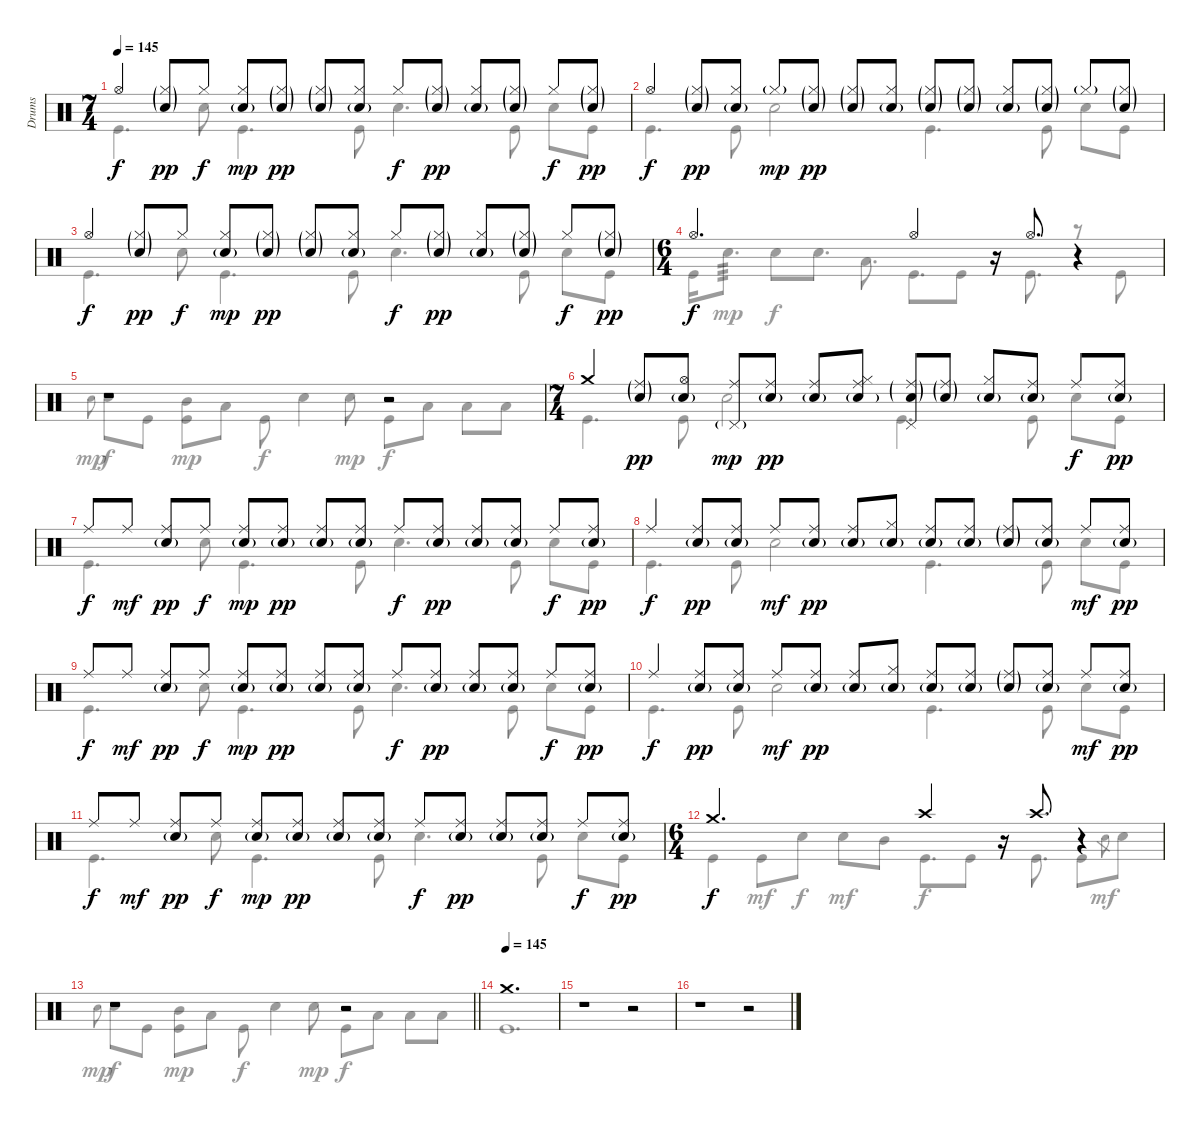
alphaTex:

\track ("Drums" "Drums") {instrument percussion}
\staff {score}
\articulation defaults
\voice
\ts (7 4)
\tempo 145
\clef neutral
\ks c "Hi-Hat (open)".4{dy f}
("Hi-Hat (closed)"{g} "Snare (hit) 2"{g}).8{dy pp} "Hi-Hat (closed)".8{dy f} ("Hi-Hat (closed)" "Snare (hit) 2"{g}).8{dy mp} ("Hi-Hat (closed)"{g} "Snare (hit) 2"{g}).8{dy pp} ("Hi-Hat (closed)"{g} "Snare (hit) 2"{g}).8 ("Hi-Hat (closed)" "Snare (hit) 2"{g}).8 "Hi-Hat (closed)".8{dy f} ("Hi-Hat (closed)"{g} "Snare (hit) 2"{g}).8{dy pp} ("Hi-Hat (closed)" "Snare (hit) 2"{g}).8 ("Hi-Hat (closed)"{g} "Snare (hit) 2"{g}).8 "Hi-Hat (closed)".8{dy f} ("Hi-Hat (closed)"{g} "Snare (hit) 2"{g}).8{dy pp} |
"Hi-Hat (open)".4{dy f} ("Hi-Hat (closed)"{g} "Snare (hit) 2"{g}).8{dy pp} ("Hi-Hat (closed)" "Snare (hit) 2"{g}).8 "Hi-Hat (closed)"{g}.8{dy mp} ("Hi-Hat (closed)"{g} "Snare (hit) 2"{g}).8{dy pp} ("Hi-Hat (closed)"{g} "Snare (hit) 2"{g}).8 ("Hi-Hat (closed)" "Snare (hit) 2"{g}).8 ("Hi-Hat (closed)"{g} "Snare (hit) 2"{g}).8 ("Hi-Hat (closed)"{g} "Snare (hit) 2"{g}).8 ("Hi-Hat (closed)" "Snare (hit) 2"{g}).8 ("Hi-Hat (closed)"{g} "Snare (hit) 2"{g}).8 "Hi-Hat (closed)"{g}.8 ("Hi-Hat (closed)"{g} "Snare (hit) 2"{g}).8 |
"Hi-Hat (open)".4{dy f} ("Hi-Hat (closed)"{g} "Snare (hit) 2"{g}).8{dy pp} "Hi-Hat (closed)".8{dy f} ("Hi-Hat (closed)" "Snare (hit) 2"{g}).8{dy mp} ("Hi-Hat (closed)"{g} "Snare (hit) 2"{g}).8{dy pp} ("Hi-Hat (closed)"{g} "Snare (hit) 2"{g}).8 ("Hi-Hat (closed)" "Snare (hit) 2"{g}).8 "Hi-Hat (closed)".8{dy f} ("Hi-Hat (closed)"{g} "Snare (hit) 2"{g}).8{dy pp} ("Hi-Hat (closed)" "Snare (hit) 2"{g}).8 ("Hi-Hat (closed)"{g} "Snare (hit) 2"{g}).8 "Hi-Hat (closed)".8{dy f} ("Hi-Hat (closed)"{g} "Snare (hit) 2"{g}).8{dy pp} |
\ts (6 4)
"Hi-Hat (open)".2{d dy f} "Hi-Hat (open)".4 r.16 "Hi-Hat (open)".8{d} r.4 |
r.1 r.2 |
\ts (7 4)
"Crash medium (hit)".4 ("Ride (middle)"{g} "Snare (hit) 2"{g}).8{dy pp} ("Hi-Hat (open)" "Snare (hit) 2"{g}).8 ("Ride (middle)" "Pedal Hi-Hat (hit)"{g}).8{dy mp} ("Ride (middle)" "Snare (hit) 2"{g}).8{dy pp} ("Ride (middle)" "Snare (hit) 2"{g}).8 ("Ride (middle)" "Snare (hit) 2"{g} "Hi-Hat (closed)").8 ("Ride (middle)"{g} "Snare (hit) 2"{g} "Pedal Hi-Hat (hit)").8 ("Ride (middle)"{g} "Snare (hit) 2"{g}).8 ("Hi-Hat (closed)" "Snare (hit) 2"{g}).8 ("Ride (middle)" "Snare (hit) 2"{g}).8 "Ride (middle)".8{dy f} ("Ride (middle)" "Snare (hit) 2"{g}).8{dy pp} |
"Ride (middle)".8{dy f} "Ride (middle)".8{dy mf} ("Ride (middle)" "Snare (hit) 2"{g}).8{dy pp} "Ride (middle)".8{dy f} ("Ride (middle)" "Snare (hit) 2"{g}).8{dy mp} ("Ride (middle)" "Snare (hit) 2"{g}).8{dy pp} ("Ride (middle)" "Snare (hit) 2"{g}).8 ("Ride (middle)" "Snare (hit) 2"{g}).8 "Ride (middle)".8{dy f} ("Ride (middle)" "Snare (hit) 2"{g}).8{dy pp} ("Ride (middle)" "Snare (hit) 2"{g}).8 ("Ride (middle)" "Snare (hit) 2"{g}).8 "Ride (middle)".8{dy f} ("Ride (middle)" "Snare (hit) 2"{g}).8{dy pp} |
"Ride (middle)".4{dy f} ("Ride (middle)" "Snare (hit) 2"{g}).8{dy pp} ("Ride (middle)" "Snare (hit) 2"{g}).8 "Ride (middle)".8{dy mf} ("Ride (middle)" "Snare (hit) 2"{g}).8{dy pp} ("Ride (middle)" "Snare (hit) 2"{g}).8 ("Hi-Hat (closed)" "Snare (hit) 2"{g}).8 ("Ride (middle)" "Snare (hit) 2"{g}).8 ("Ride (middle)" "Snare (hit) 2"{g}).8 ("Ride (middle)"{g} "Snare (hit) 2"{g}).8 ("Ride (middle)" "Snare (hit) 2"{g}).8 "Ride (middle)".8{dy mf} ("Ride (middle)" "Snare (hit) 2"{g}).8{dy pp} |
"Ride (middle)".8{dy f} "Ride (middle)".8{dy mf} ("Ride (middle)" "Snare (hit) 2"{g}).8{dy pp} "Ride (middle)".8{dy f} ("Ride (middle)" "Snare (hit) 2"{g}).8{dy mp} ("Ride (middle)" "Snare (hit) 2"{g}).8{dy pp} ("Ride (middle)" "Snare (hit) 2"{g}).8 ("Ride (middle)" "Snare (hit) 2"{g}).8 "Ride (middle)".8{dy f} ("Ride (middle)" "Snare (hit) 2"{g}).8{dy pp} ("Ride (middle)" "Snare (hit) 2"{g}).8 ("Ride (middle)" "Snare (hit) 2"{g}).8 "Ride (middle)".8{dy f} ("Ride (middle)" "Snare (hit) 2"{g}).8{dy pp} |
"Ride (middle)".4{dy f} ("Ride (middle)" "Snare (hit) 2"{g}).8{dy pp} ("Ride (middle)" "Snare (hit) 2"{g}).8 "Ride (middle)".8{dy mf} ("Ride (middle)" "Snare (hit) 2"{g}).8{dy pp} ("Ride (middle)" "Snare (hit) 2"{g}).8 ("Hi-Hat (closed)" "Snare (hit) 2"{g}).8 ("Ride (middle)" "Snare (hit) 2"{g}).8 ("Ride (middle)" "Snare (hit) 2"{g}).8 ("Ride (middle)"{g} "Snare (hit) 2"{g}).8 ("Ride (middle)" "Snare (hit) 2"{g}).8 "Ride (middle)".8{dy mf} ("Ride (middle)" "Snare (hit) 2"{g}).8{dy pp} |
"Ride (middle)".8{dy f} "Ride (middle)".8{dy mf} ("Ride (middle)" "Snare (hit) 2"{g}).8{dy pp} "Ride (middle)".8{dy f} ("Ride (middle)" "Snare (hit) 2"{g}).8{dy mp} ("Ride (middle)" "Snare (hit) 2"{g}).8{dy pp} ("Ride (middle)" "Snare (hit) 2"{g}).8 ("Ride (middle)" "Snare (hit) 2"{g}).8 "Ride (middle)".8{dy f} ("Ride (middle)" "Snare (hit) 2"{g}).8{dy pp} ("Ride (middle)" "Snare (hit) 2"{g}).8 ("Ride (middle)" "Snare (hit) 2"{g}).8 "Ride (middle)".8{dy f} ("Ride (middle)" "Snare (hit) 2"{g}).8{dy pp} |
\ts (6 4)
"Crash medium (hit)".2{d dy f} "Crash high (hit)".4 r.16 "Crash high (hit)".8{d} r.4 |
\barLineRight lightlight
r.1 r.2 |
\section ("" "")
\tempo (145)
"Crash medium (hit)".1{d} |
r.1 r.2 |
r.1 r.2
\voice
\clef neutral
\ottava regular
\simile none
\ks c "Kick (hit)".4{d dy f} "Snare (hit) 2".8 "Kick (hit)".4{d} "Kick (hit)".8 "Snare (hit) 2".4{d} "Kick (hit)".8 "Snare (hit) 2".8 "Kick (hit)".8
|
"Kick (hit)".4{d} "Kick (hit)".8 "Snare (hit) 2".2 "Kick (hit)".4{d} "Kick (hit)".8 "Snare (hit) 2".8 "Kick (hit)".8 |
"Kick (hit)".4{d} "Snare (hit) 2".8 "Kick (hit)".4{d} "Kick (hit)".8 "Snare (hit) 2".4{d} "Kick (hit)".8 "Snare (hit) 2".8 "Kick (hit)".8 |
"Kick (hit)".16 "Snare (hit) 2".8{d tp 3 dy mp} "Snare (hit) 2".8{dy f} "Snare (hit) 2".8{d} "Low Tom (hit)".8{d} "Kick (hit)".8{d} "Kick (hit)".8 "Kick (hit)".8{d} r.8 "Kick (hit)".8 |
"Snare (hit) 2".8{gr onbeat dy mp} "Snare (hit) 2".8{dy f} "Kick (hit)".8 ("Mid Tom (hit)" "Kick (hit)").8{dy mp} "Low Tom (hit)".8 "Kick (hit)".8{dy f} "Snare (hit) 2".4 "Snare (hit) 2".8{dy mp} "Kick (hit)".8{dy f} "Low Tom (hit)".8 "Low Tom (hit)".8 "Low Tom (hit)".8 |
"Kick (hit)".4{d} "Kick (hit)".8 "Snare (hit) 2".2 "Kick (hit)".4{d} "Kick (hit)".8 "Snare (hit) 2".8 "Kick (hit)".8 |
"Kick (hit)".4{d} "Snare (hit) 2".8 "Kick (hit)".4{d} "Kick (hit)".8 "Snare (hit) 2".4{d} "Kick (hit)".8 "Snare (hit) 2".8 "Kick (hit)".8 |
"Kick (hit)".4{d} "Kick (hit)".8 "Snare (hit) 2".2 "Kick (hit)".4{d} "Kick (hit)".8 "Snare (hit) 2".8 "Kick (hit)".8 |
"Kick (hit)".4{d} "Snare (hit) 2".8 "Kick (hit)".4{d} "Kick (hit)".8 "Snare (hit) 2".4{d} "Kick (hit)".8 "Snare (hit) 2".8 "Kick (hit)".8 |
"Kick (hit)".4{d} "Kick (hit)".8 "Snare (hit) 2".2 "Kick (hit)".4{d} "Kick (hit)".8 "Snare (hit) 2".8 "Kick (hit)".8 |
"Kick (hit)".4{d} "Snare (hit) 2".8 "Kick (hit)".4{d} "Kick (hit)".8 "Snare (hit) 2".4{d} "Kick (hit)".8 "Snare (hit) 2".8 "Kick (hit)".8 |
"Kick (hit)".4 "Kick (hit)".8{dy mf} "Snare (hit) 2".8{dy f} "Snare (hit) 2".8{dy mf} "Mid Tom (hit)".8 "Kick (hit)".8{d dy f} "Kick (hit)".8 "Kick (hit)".8{d} "Kick (hit)".8 "Snare (hit) 2".8{gr dy mf} "Snare (hit) 2".8 |
\barLineRight lightlight "Snare (hit) 2".8{gr onbeat dy mp} "Snare (hit) 2".8{dy f} "Kick (hit)".8
("Mid Tom (hit)" "Kick (hit)").8{dy mp} "Low Tom (hit)".8 "Kick (hit)".8{dy f} "Snare (hit) 2".4 "Snare (hit) 2".8{dy mp} "Kick (hit)".8{dy f} "Low Tom (hit)".8 "Low Tom (hit)".8 "Low Tom (hit)".8 |
"Kick (hit)".1{d} |
|
